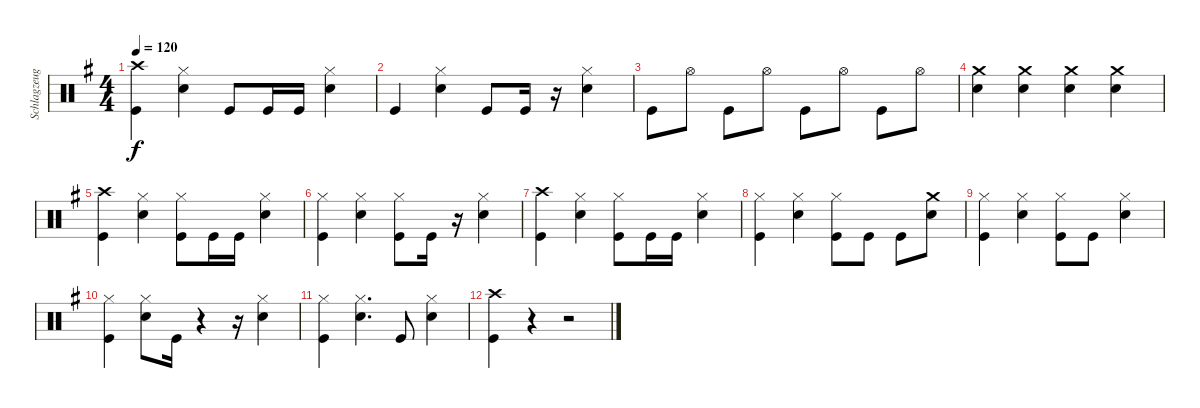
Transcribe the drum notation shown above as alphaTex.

\track ("Schlagzeug" "Schlagzeug") {instrument percussion}
\staff {score}
\articulation defaults
\ts (4 4)
\tempo 120
\clef neutral
\ks g
("Crash high (hit)" "Kick (hit)").4{dy f} ("Snare (hit) 2" "Hi-Hat (closed)").4 "Kick (hit)".8 "Kick (hit)".16 "Kick (hit)".16 ("Snare (hit) 2" "Hi-Hat (closed)").4 |
"Kick (hit)".4 ("Snare (hit) 2" "Hi-Hat (closed)").4 "Kick (hit)".8 "Kick (hit)".16 r.16 ("Snare (hit) 2" "Hi-Hat (closed)").4 |
"Kick (hit)".8 "Hi-Hat (open)".8 "Kick (hit)".8 "Hi-Hat (open)".8 "Kick (hit)".8 "Hi-Hat (open)".8 "Kick (hit)".8 "Hi-Hat (open)".8 |
("Snare (hit) 2" "Crash medium (hit)").4 ("Snare (hit) 2" "Crash medium (hit)").4 ("Snare (hit) 2" "Crash medium (hit)").4 ("Snare (hit) 2" "Crash medium (hit)").4 |
("Crash high (hit)" "Kick (hit)").4 ("Snare (hit) 2" "Hi-Hat (closed)").4 ("Kick (hit)" "Hi-Hat (closed)").8 "Kick (hit)".16 "Kick (hit)".16 ("Snare (hit) 2" "Hi-Hat (closed)").4 |
("Hi-Hat (closed)" "Kick (hit)").4 ("Snare (hit) 2" "Hi-Hat (closed)").4 ("Kick (hit)" "Hi-Hat (closed)").8 "Kick (hit)".16 r.16 ("Snare (hit) 2" "Hi-Hat (closed)").4 |
("Crash high (hit)" "Kick (hit)").4 ("Snare (hit) 2" "Hi-Hat (closed)").4 ("Kick (hit)" "Hi-Hat (closed)").8 "Kick (hit)".16 "Kick (hit)".16 ("Snare (hit) 2" "Hi-Hat (closed)").4 |
("Kick (hit)" "Hi-Hat (closed)").4 ("Snare (hit) 2" "Hi-Hat (closed)").4 ("Kick (hit)" "Hi-Hat (closed)").8 "Kick (hit)".8 "Kick (hit)".8 ("Snare (hit) 2" "Crash medium (hit)").8 |
("Kick (hit)" "Hi-Hat (closed)").4 ("Snare (hit) 2" "Hi-Hat (closed)").4 ("Kick (hit)" "Hi-Hat (closed)").8 "Kick (hit)".8 ("Snare (hit) 2" "Hi-Hat (closed)").4 |
("Kick (hit)" "Hi-Hat (closed)").4 ("Snare (hit) 2" "Hi-Hat (closed)").8 "Kick (hit)".16 r.4 r.16 ("Snare (hit) 2" "Hi-Hat (closed)").4 |
("Kick (hit)" "Hi-Hat (closed)").4 ("Snare (hit) 2" "Hi-Hat (closed)").4{d} "Kick (hit)".8 ("Snare (hit) 2" "Hi-Hat (closed)").4 |
("Kick (hit)" "Crash high (hit)").4 r.4 r.2
